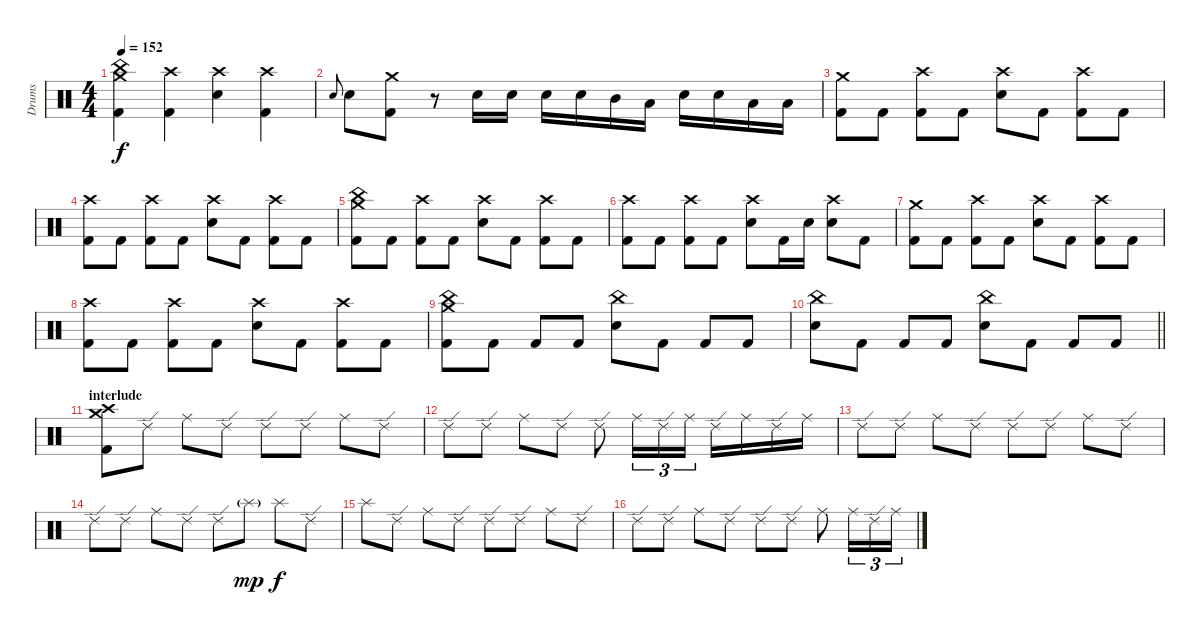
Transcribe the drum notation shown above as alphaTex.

\track ("Drums" "Drums") {instrument percussion}
\staff {score}
\articulation defaults
\ts (4 4)
\tempo 152
\clef neutral
\ks c
("China (hit)" "Crash medium (hit)" "Kick (hit) 2").4{dy f} ("Crash high (hit)" "Kick (hit) 2").4 ("Crash high (hit)" "Electric Snare (hit)").4 ("Crash high (hit)" "Kick (hit) 2").4 |
"Electric Snare (hit)".8{gr onbeat} "Electric Snare (hit)".8 ("Crash medium (hit)" "Kick (hit) 2").8 r.8 "Electric Snare (hit)".16 "Electric Snare (hit)".16 "Electric Snare (hit)".16 "Electric Snare (hit)".16 "Mid Tom (hit)".16 "Low Tom (hit)".16 "Electric Snare (hit)".16 "Electric Snare (hit)".16 "Low Tom (hit)".16 "Low Tom (hit)".16 |
("Crash medium (hit)" "Kick (hit) 2").8 "Kick (hit) 2".8 ("Crash high (hit)" "Kick (hit) 2").8 "Kick (hit) 2".8 ("Crash high (hit)" "Electric Snare (hit)").8 "Kick (hit) 2".8 ("Crash high (hit)" "Kick (hit) 2").8 "Kick (hit) 2".8 |
("Crash high (hit)" "Kick (hit) 2").8 "Kick (hit) 2".8 ("Crash high (hit)" "Kick (hit) 2").8 "Kick (hit) 2".8 ("Crash high (hit)" "Electric Snare (hit)").8 "Kick (hit) 2".8 ("Crash high (hit)" "Kick (hit) 2").8 "Kick (hit) 2".8 |
("Crash medium (hit)" "China (hit)" "Kick (hit) 2").8 "Kick (hit) 2".8 ("Crash high (hit)" "Kick (hit) 2").8 "Kick (hit) 2".8 ("Crash high (hit)" "Electric Snare (hit)").8 "Kick (hit) 2".8 ("Crash high (hit)" "Kick (hit) 2").8 "Kick (hit) 2".8 |
("Crash high (hit)" "Kick (hit) 2").8 "Kick (hit) 2".8 ("Crash high (hit)" "Kick (hit) 2").8 "Kick (hit) 2".8 ("Crash high (hit)" "Electric Snare (hit)").8 "Kick (hit) 2".16 "Electric Snare (hit)".16 ("Crash high (hit)" "Electric Snare (hit)").8 "Kick (hit) 2".8 |
("Crash medium (hit)" "Kick (hit) 2").8 "Kick (hit) 2".8 ("Crash high (hit)" "Kick (hit) 2").8 "Kick (hit) 2".8 ("Crash high (hit)" "Electric Snare (hit)").8 "Kick (hit) 2".8 ("Crash high (hit)" "Kick (hit) 2").8 "Kick (hit) 2".8 |
("Crash high (hit)" "Kick (hit) 2").8 "Kick (hit) 2".8 ("Crash high (hit)" "Kick (hit) 2").8 "Kick (hit) 2".8 ("Crash high (hit)" "Electric Snare (hit)").8 "Kick (hit) 2".8 ("Crash high (hit)" "Kick (hit) 2").8 "Kick (hit) 2".8 |
("Crash medium (hit)" "China (hit)" "Kick (hit) 2").8 "Kick (hit) 2".8 "Kick (hit) 2".8 "Kick (hit) 2".8 ("China (hit)" "Electric Snare (hit)").8 "Kick (hit) 2".8 "Kick (hit) 2".8 "Kick (hit) 2".8 |
\barLineRight lightlight
("China (hit)" "Electric Snare (hit)").8 "Kick (hit) 2".8 "Kick (hit) 2".8 "Kick (hit) 2".8 ("China (hit)" "Electric Snare (hit)").8 "Kick (hit) 2".8 "Kick (hit) 2".8 "Kick (hit) 2".8 |
\section ("" "interlude")
("Crash high (hit)" "Crash medium (hit)" "Kick (hit) 2").8 "Ride (edge) 2".8 "Ride (middle)".8 "Ride (edge) 2".8 "Ride (edge) 2".8 "Ride (edge) 2".8 "Ride (middle)".8 "Ride (edge) 2".8 |
"Ride (edge) 2".8 "Ride (edge) 2".8 "Ride (middle)".8 "Ride (edge) 2".8 "Ride (edge) 2".8 "Ride (middle)".16{tu (3 2)} "Ride (edge) 2".16{tu (3 2)} "Ride (middle)".16{tu (3 2)} "Ride (edge) 2".16 "Ride (middle)".16 "Ride (edge) 2".16 "Ride (middle)".16 |
"Ride (edge) 2".8 "Ride (edge) 2".8 "Ride (middle)".8 "Ride (edge) 2".8 "Ride (edge) 2".8 "Ride (edge) 2".8 "Ride (middle)".8 "Ride (edge) 2".8 |
"Ride (edge) 2".8 "Ride (edge) 2".8 "Ride (middle)".8 "Ride (edge) 2".8 "Ride (edge) 2".8 "Splash (hit)"{g}.8{dy mp} "Splash (hit)".8{dy f} "Ride (edge) 2".8 |
"Splash (hit)".8 "Ride (edge) 2".8 "Ride (middle)".8 "Ride (edge) 2".8 "Ride (edge) 2".8 "Ride (edge) 2".8 "Ride (middle)".8 "Ride (edge) 2".8 |
"Ride (edge) 2".8 "Ride (edge) 2".8 "Ride (middle)".8 "Ride (edge) 2".8 "Ride (edge) 2".8 "Ride (edge) 2".8 "Ride (middle)".8 "Ride (middle)".16{tu (3 2)} "Ride (edge) 2".16{tu (3 2)} "Ride (middle)".16{tu (3 2)}
